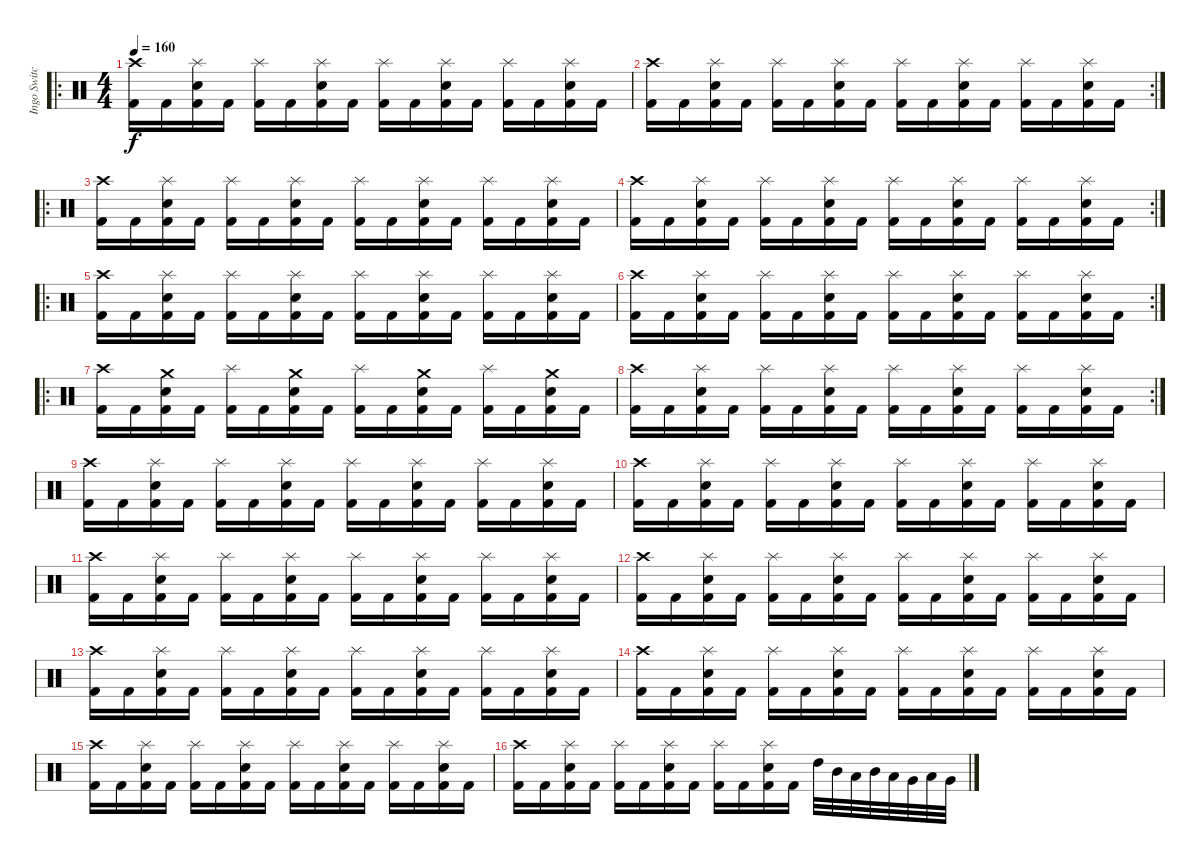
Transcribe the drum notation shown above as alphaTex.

\track ("Ingo Switchenberg" "Ingo Switc") {instrument percussion}
\staff {score}
\articulation defaults
\ro
\ts (4 4)
\tempo 160
\clef neutral
\ks c
("Kick (hit) 2" "Crash high (hit)").16{dy f} "Kick (hit) 2".16 ("Splash (hit)" "Kick (hit) 2" "Snare (hit) 2").16 "Kick (hit) 2".16 ("Splash (hit)" "Kick (hit) 2").16 "Kick (hit) 2".16 ("Splash (hit)" "Kick (hit) 2" "Snare (hit) 2").16 "Kick (hit) 2".16 ("Splash (hit)" "Kick (hit) 2").16 "Kick (hit) 2".16 ("Splash (hit)" "Kick (hit) 2" "Snare (hit) 2").16 "Kick (hit) 2".16 ("Splash (hit)" "Kick (hit) 2").16 "Kick (hit) 2".16 ("Splash (hit)" "Kick (hit) 2" "Snare (hit) 2").16 "Kick (hit) 2".16 |
\rc 2
("Kick (hit) 2" "Crash high (hit)").16 "Kick (hit) 2".16 ("Splash (hit)" "Kick (hit) 2" "Snare (hit) 2").16 "Kick (hit) 2".16 ("Splash (hit)" "Kick (hit) 2").16 "Kick (hit) 2".16 ("Splash (hit)" "Kick (hit) 2" "Snare (hit) 2").16 "Kick (hit) 2".16 ("Splash (hit)" "Kick (hit) 2").16 "Kick (hit) 2".16 ("Splash (hit)" "Kick (hit) 2" "Snare (hit) 2").16 "Kick (hit) 2".16 ("Splash (hit)" "Kick (hit) 2").16 "Kick (hit) 2".16 ("Splash (hit)" "Kick (hit) 2" "Snare (hit) 2").16 "Kick (hit) 2".16 |
\ro
("Kick (hit) 2" "Crash high (hit)").16 "Kick (hit) 2".16 ("Splash (hit)" "Kick (hit) 2" "Snare (hit) 2").16 "Kick (hit) 2".16 ("Splash (hit)" "Kick (hit) 2").16 "Kick (hit) 2".16 ("Splash (hit)" "Kick (hit) 2" "Snare (hit) 2").16 "Kick (hit) 2".16 ("Splash (hit)" "Kick (hit) 2").16 "Kick (hit) 2".16 ("Splash (hit)" "Kick (hit) 2" "Snare (hit) 2").16 "Kick (hit) 2".16 ("Splash (hit)" "Kick (hit) 2").16 "Kick (hit) 2".16 ("Splash (hit)" "Kick (hit) 2" "Snare (hit) 2").16 "Kick (hit) 2".16 |
\rc 2
("Kick (hit) 2" "Crash high (hit)").16 "Kick (hit) 2".16 ("Splash (hit)" "Kick (hit) 2" "Snare (hit) 2").16 "Kick (hit) 2".16 ("Splash (hit)" "Kick (hit) 2").16 "Kick (hit) 2".16 ("Splash (hit)" "Kick (hit) 2" "Snare (hit) 2").16 "Kick (hit) 2".16 ("Splash (hit)" "Kick (hit) 2").16 "Kick (hit) 2".16 ("Splash (hit)" "Kick (hit) 2" "Snare (hit) 2").16 "Kick (hit) 2".16 ("Splash (hit)" "Kick (hit) 2").16 "Kick (hit) 2".16 ("Splash (hit)" "Kick (hit) 2" "Snare (hit) 2").16 "Kick (hit) 2".16 |
\ro
("Kick (hit) 2" "Crash high (hit)").16 "Kick (hit) 2".16 ("Splash (hit)" "Kick (hit) 2" "Snare (hit) 2").16 "Kick (hit) 2".16 ("Splash (hit)" "Kick (hit) 2").16 "Kick (hit) 2".16 ("Splash (hit)" "Kick (hit) 2" "Snare (hit) 2").16 "Kick (hit) 2".16 ("Splash (hit)" "Kick (hit) 2").16 "Kick (hit) 2".16 ("Splash (hit)" "Kick (hit) 2" "Snare (hit) 2").16 "Kick (hit) 2".16 ("Splash (hit)" "Kick (hit) 2").16 "Kick (hit) 2".16 ("Splash (hit)" "Kick (hit) 2" "Snare (hit) 2").16 "Kick (hit) 2".16 |
\rc 2
("Kick (hit) 2" "Crash high (hit)").16 "Kick (hit) 2".16 ("Splash (hit)" "Kick (hit) 2" "Snare (hit) 2").16 "Kick (hit) 2".16 ("Splash (hit)" "Kick (hit) 2").16 "Kick (hit) 2".16 ("Splash (hit)" "Kick (hit) 2" "Snare (hit) 2").16 "Kick (hit) 2".16 ("Splash (hit)" "Kick (hit) 2").16 "Kick (hit) 2".16 ("Splash (hit)" "Kick (hit) 2" "Snare (hit) 2").16 "Kick (hit) 2".16 ("Splash (hit)" "Kick (hit) 2").16 "Kick (hit) 2".16 ("Splash (hit)" "Kick (hit) 2" "Snare (hit) 2").16 "Kick (hit) 2".16 |
\ro
("Kick (hit) 2" "Crash high (hit)").16 "Kick (hit) 2".16 ("Crash medium (hit)" "Kick (hit) 2" "Snare (hit) 2").16 "Kick (hit) 2".16 ("Splash (hit)" "Kick (hit) 2").16 "Kick (hit) 2".16 ("Crash medium (hit)" "Kick (hit) 2" "Snare (hit) 2").16 "Kick (hit) 2".16 ("Splash (hit)" "Kick (hit) 2").16 "Kick (hit) 2".16 ("Crash medium (hit)" "Kick (hit) 2" "Snare (hit) 2").16 "Kick (hit) 2".16 ("Splash (hit)" "Kick (hit) 2").16 "Kick (hit) 2".16 ("Crash medium (hit)" "Kick (hit) 2" "Snare (hit) 2").16 "Kick (hit) 2".16 |
\rc 2
("Kick (hit) 2" "Crash high (hit)").16 "Kick (hit) 2".16 ("Splash (hit)" "Kick (hit) 2" "Snare (hit) 2").16 "Kick (hit) 2".16 ("Splash (hit)" "Kick (hit) 2").16 "Kick (hit) 2".16 ("Splash (hit)" "Kick (hit) 2" "Snare (hit) 2").16 "Kick (hit) 2".16 ("Splash (hit)" "Kick (hit) 2").16 "Kick (hit) 2".16 ("Splash (hit)" "Kick (hit) 2" "Snare (hit) 2").16 "Kick (hit) 2".16 ("Splash (hit)" "Kick (hit) 2").16 "Kick (hit) 2".16 ("Splash (hit)" "Kick (hit) 2" "Snare (hit) 2").16 "Kick (hit) 2".16 |
("Kick (hit) 2" "Crash high (hit)").16 "Kick (hit) 2".16 ("Splash (hit)" "Kick (hit) 2" "Snare (hit) 2").16 "Kick (hit) 2".16 ("Splash (hit)" "Kick (hit) 2").16 "Kick (hit) 2".16 ("Splash (hit)" "Kick (hit) 2" "Snare (hit) 2").16 "Kick (hit) 2".16 ("Splash (hit)" "Kick (hit) 2").16 "Kick (hit) 2".16 ("Splash (hit)" "Kick (hit) 2" "Snare (hit) 2").16 "Kick (hit) 2".16 ("Splash (hit)" "Kick (hit) 2").16 "Kick (hit) 2".16 ("Splash (hit)" "Kick (hit) 2" "Snare (hit) 2").16 "Kick (hit) 2".16 |
("Kick (hit) 2" "Crash high (hit)").16 "Kick (hit) 2".16 ("Splash (hit)" "Kick (hit) 2" "Snare (hit) 2").16 "Kick (hit) 2".16 ("Splash (hit)" "Kick (hit) 2").16 "Kick (hit) 2".16 ("Splash (hit)" "Kick (hit) 2" "Snare (hit) 2").16 "Kick (hit) 2".16 ("Splash (hit)" "Kick (hit) 2").16 "Kick (hit) 2".16 ("Splash (hit)" "Kick (hit) 2" "Snare (hit) 2").16 "Kick (hit) 2".16 ("Splash (hit)" "Kick (hit) 2").16 "Kick (hit) 2".16 ("Splash (hit)" "Kick (hit) 2" "Snare (hit) 2").16 "Kick (hit) 2".16 |
("Kick (hit) 2" "Crash high (hit)").16 "Kick (hit) 2".16 ("Splash (hit)" "Kick (hit) 2" "Snare (hit) 2").16 "Kick (hit) 2".16 ("Splash (hit)" "Kick (hit) 2").16 "Kick (hit) 2".16 ("Splash (hit)" "Kick (hit) 2" "Snare (hit) 2").16 "Kick (hit) 2".16 ("Splash (hit)" "Kick (hit) 2").16 "Kick (hit) 2".16 ("Splash (hit)" "Kick (hit) 2" "Snare (hit) 2").16 "Kick (hit) 2".16 ("Splash (hit)" "Kick (hit) 2").16 "Kick (hit) 2".16 ("Splash (hit)" "Kick (hit) 2" "Snare (hit) 2").16 "Kick (hit) 2".16 |
("Kick (hit) 2" "Crash high (hit)").16 "Kick (hit) 2".16 ("Splash (hit)" "Kick (hit) 2" "Snare (hit) 2").16 "Kick (hit) 2".16 ("Splash (hit)" "Kick (hit) 2").16 "Kick (hit) 2".16 ("Splash (hit)" "Kick (hit) 2" "Snare (hit) 2").16 "Kick (hit) 2".16 ("Splash (hit)" "Kick (hit) 2").16 "Kick (hit) 2".16 ("Splash (hit)" "Kick (hit) 2" "Snare (hit) 2").16 "Kick (hit) 2".16 ("Splash (hit)" "Kick (hit) 2").16 "Kick (hit) 2".16 ("Splash (hit)" "Kick (hit) 2" "Snare (hit) 2").16 "Kick (hit) 2".16 |
("Kick (hit) 2" "Crash high (hit)").16 "Kick (hit) 2".16 ("Splash (hit)" "Kick (hit) 2" "Snare (hit) 2").16 "Kick (hit) 2".16 ("Splash (hit)" "Kick (hit) 2").16 "Kick (hit) 2".16 ("Splash (hit)" "Kick (hit) 2" "Snare (hit) 2").16 "Kick (hit) 2".16 ("Splash (hit)" "Kick (hit) 2").16 "Kick (hit) 2".16 ("Splash (hit)" "Kick (hit) 2" "Snare (hit) 2").16 "Kick (hit) 2".16 ("Splash (hit)" "Kick (hit) 2").16 "Kick (hit) 2".16 ("Splash (hit)" "Kick (hit) 2" "Snare (hit) 2").16 "Kick (hit) 2".16 |
("Kick (hit) 2" "Crash high (hit)").16 "Kick (hit) 2".16 ("Splash (hit)" "Kick (hit) 2" "Snare (hit) 2").16 "Kick (hit) 2".16 ("Splash (hit)" "Kick (hit) 2").16 "Kick (hit) 2".16 ("Splash (hit)" "Kick (hit) 2" "Snare (hit) 2").16 "Kick (hit) 2".16 ("Splash (hit)" "Kick (hit) 2").16 "Kick (hit) 2".16 ("Splash (hit)" "Kick (hit) 2" "Snare (hit) 2").16 "Kick (hit) 2".16 ("Splash (hit)" "Kick (hit) 2").16 "Kick (hit) 2".16 ("Splash (hit)" "Kick (hit) 2" "Snare (hit) 2").16 "Kick (hit) 2".16 |
("Kick (hit) 2" "Crash high (hit)").16 "Kick (hit) 2".16 ("Splash (hit)" "Kick (hit) 2" "Snare (hit) 2").16 "Kick (hit) 2".16 ("Splash (hit)" "Kick (hit) 2").16 "Kick (hit) 2".16 ("Splash (hit)" "Kick (hit) 2" "Snare (hit) 2").16 "Kick (hit) 2".16 ("Splash (hit)" "Kick (hit) 2").16 "Kick (hit) 2".16 ("Splash (hit)" "Kick (hit) 2" "Snare (hit) 2").16 "Kick (hit) 2".16 ("Splash (hit)" "Kick (hit) 2").16 "Kick (hit) 2".16 ("Splash (hit)" "Kick (hit) 2" "Snare (hit) 2").16 "Kick (hit) 2".16 |
("Kick (hit) 2" "Crash high (hit)").16 "Kick (hit) 2".16 ("Splash (hit)" "Kick (hit) 2" "Snare (hit) 2").16 "Kick (hit) 2".16 ("Splash (hit)" "Kick (hit) 2").16 "Kick (hit) 2".16 ("Splash (hit)" "Kick (hit) 2" "Snare (hit) 2").16 "Kick (hit) 2".16 ("Splash (hit)" "Kick (hit) 2").16 "Kick (hit) 2".16 ("Splash (hit)" "Kick (hit) 2" "Snare (hit) 2").16 "Kick (hit) 2".16 "High Tom (hit)".32 "Mid Tom (hit)".32 "Low Tom (hit)".32 "Mid Tom (hit)".32 "Low Tom (hit)".32 "Very Low Tom (hit)".32 "Low Tom (hit)".32 "Very Low Tom (hit)".32
